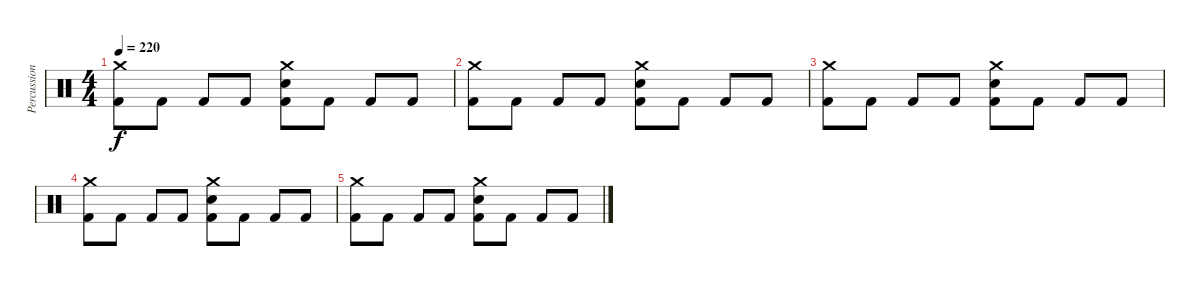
\track ("Percussion" "Percussion") {instrument percussion}
\staff {score}
\articulation defaults
\ts (4 4)
\tempo 220
\clef neutral
\ks c
("Crash medium (hit)" "Kick (hit) 2").8{dy f} "Kick (hit) 2".8 "Kick (hit) 2".8 "Kick (hit) 2".8 ("Crash medium (hit)" "Snare (hit) 2" "Kick (hit) 2").8 "Kick (hit) 2".8 "Kick (hit) 2".8 "Kick (hit) 2".8 |
("Crash medium (hit)" "Kick (hit) 2").8 "Kick (hit) 2".8 "Kick (hit) 2".8 "Kick (hit) 2".8 ("Crash medium (hit)" "Snare (hit) 2" "Kick (hit) 2").8 "Kick (hit) 2".8 "Kick (hit) 2".8 "Kick (hit) 2".8 |
("Crash medium (hit)" "Kick (hit) 2").8 "Kick (hit) 2".8 "Kick (hit) 2".8 "Kick (hit) 2".8 ("Crash medium (hit)" "Snare (hit) 2" "Kick (hit) 2").8 "Kick (hit) 2".8 "Kick (hit) 2".8 "Kick (hit) 2".8 |
("Crash medium (hit)" "Kick (hit) 2").8 "Kick (hit) 2".8 "Kick (hit) 2".8 "Kick (hit) 2".8 ("Crash medium (hit)" "Snare (hit) 2" "Kick (hit) 2").8 "Kick (hit) 2".8 "Kick (hit) 2".8 "Kick (hit) 2".8 |
("Crash medium (hit)" "Kick (hit) 2").8 "Kick (hit) 2".8 "Kick (hit) 2".8 "Kick (hit) 2".8 ("Crash medium (hit)" "Snare (hit) 2" "Kick (hit) 2").8 "Kick (hit) 2".8 "Kick (hit) 2".8 "Kick (hit) 2".8
